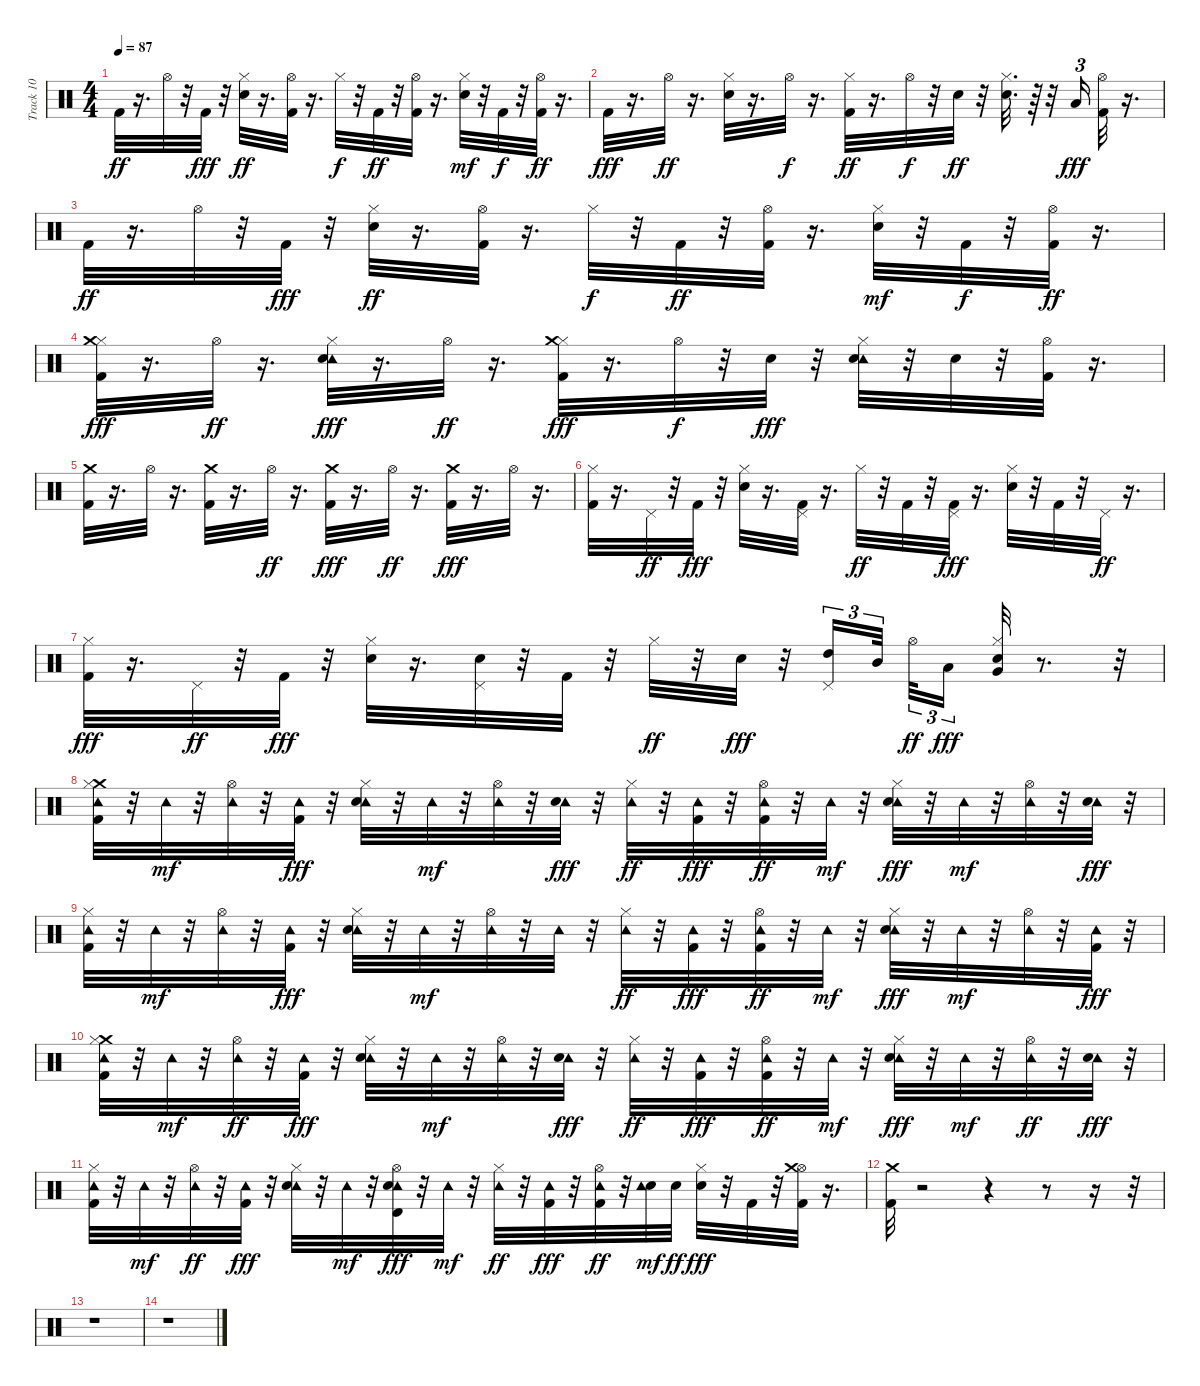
\track ("Track 10" "Track 10") {instrument percussion}
\staff {score}
\articulation defaults
\ts (4 4)
\tempo 87
\clef neutral
\ks c "Kick (hit) 2".32{dy ff}
r.16{d} "Hi-Hat (open)".32 r.32 "Kick (hit) 2".32{dy fff} r.32 ("Snare (hit) 2" "Hi-Hat (closed)").32{dy ff} r.16{d} ("Hi-Hat (open)" "Kick (hit) 2").32 r.16{d} "Hi-Hat (closed)".32{dy f} r.32 "Kick (hit) 2".32{dy ff} r.32 ("Hi-Hat (open)" "Kick (hit) 2").32 r.16{d} ("Hi-Hat (closed)" "Snare (hit) 2").32{dy mf} r.32 "Kick (hit) 2".32{dy f} r.32 ("Hi-Hat (open)" "Kick (hit) 2").32{dy ff} r.16{d} |
"Kick (hit) 2".32{dy fff} r.16{d} "Hi-Hat (open)".32{dy ff} r.16{d} ("Snare (hit) 2" "Hi-Hat (closed)").32 r.16{d} "Hi-Hat (open)".32{dy f} r.16{d} ("Kick (hit) 2" "Hi-Hat (closed)").32{dy ff} r.16{d} "Hi-Hat (open)".32{dy f} r.32 "Snare (hit) 2".32{dy ff} r.32 ("Hi-Hat (closed)" "Snare (hit) 2").32{d} r.64 r.32 "Low Tom (hit)".16{tu (3 2) dy fff} ("Hi-Hat (open)" "Kick (hit) 2").32 r.16{d} |
"Kick (hit) 2".32{dy ff} r.16{d} "Hi-Hat (open)".32 r.32 "Kick (hit) 2".32{dy fff} r.32 ("Snare (hit) 2" "Hi-Hat (closed)").32{dy ff} r.16{d} ("Hi-Hat (open)" "Kick (hit) 2").32 r.16{d} "Hi-Hat (closed)".32{dy f} r.32 "Kick (hit) 2".32{dy ff} r.32 ("Hi-Hat (open)" "Kick (hit) 2").32 r.16{d} ("Hi-Hat (closed)" "Snare (hit) 2").32{dy mf} r.32 "Kick (hit) 2".32{dy f} r.32 ("Hi-Hat (open)" "Kick (hit) 2").32{dy ff} r.16{d} |
("Hi-Hat (closed)" "Kick (hit) 2" "Crash medium (hit)").32{dy fff} r.16{d} "Hi-Hat (open)".32{dy ff} r.16{d} ("Hi-Hat (closed)" "Tambourine (hit)" "Snare (hit) 2").32{dy fff} r.16{d} "Hi-Hat (open)".32{dy ff} r.16{d} ("Hi-Hat (closed)" "Kick (hit) 2" "Crash medium (hit)").32{dy fff} r.16{d} "Hi-Hat (open)".32{dy f} r.32 "Snare (hit) 2".32{dy fff} r.32 ("Hi-Hat (closed)" "Tambourine (hit)" "Snare (hit) 2").32 r.32 "Snare (hit) 2".32 r.32 ("Hi-Hat (open)" "Kick (hit) 2").32 r.16{d} |
("Crash medium (hit)" "Kick (hit) 2").32 r.16{d} "Hi-Hat (open)".32 r.16{d} ("Kick (hit) 2" "Crash medium (hit)").32 r.16{d} "Hi-Hat (open)".32{dy ff} r.16{d} ("Kick (hit) 2" "Crash medium (hit)").32{dy fff} r.16{d} "Hi-Hat (open)".32{dy ff} r.16{d} ("Kick (hit) 2" "Crash medium (hit)").32{dy fff} r.16{d} "Hi-Hat (open)".32 r.16{d} |
("Hi-Hat (closed)" "Kick (hit) 2").32 r.16{d} "Pedal Hi-Hat (hit)".32{dy ff} r.32 "Kick (hit) 2".32{dy fff} r.32 ("Hi-Hat (closed)" "Snare (hit) 2").32 r.16{d} ("Pedal Hi-Hat (hit)" "Kick (hit) 2").32 r.16{d} "Hi-Hat (closed)".32{dy ff} r.32 "Kick (hit) 2".32 r.32 ("Pedal Hi-Hat (hit)" "Kick (hit) 2").32{dy fff} r.16{d} ("Hi-Hat (closed)" "Snare (hit) 2").32 r.32 "Kick (hit) 2".32 r.32 "Pedal Hi-Hat (hit)".32{dy ff} r.16{d} |
("Hi-Hat (closed)" "Kick (hit) 2").32{dy fff} r.16{d} "Pedal Hi-Hat (hit)".32{dy ff} r.32 "Kick (hit) 2".32{dy fff} r.32 ("Hi-Hat (closed)" "Snare (hit) 2").32 r.16{d} ("Pedal Hi-Hat (hit)" "Snare (hit) 2").32 r.32 "Kick (hit) 2".32 r.32 "Hi-Hat (closed)".32{dy ff} r.32 "Snare (hit) 2".32{dy fff} r.32 ("High Tom (hit)" "Pedal Hi-Hat (hit)").16{tu (3 2)} "Mid Tom (hit)".32{tu (3 2) beam splitsecondary} "Hi-Hat (open)".32{tu (3 2) dy ff} "Low Tom (hit)".16{tu (3 2) dy fff} ("Very Low Tom (hit)" "Hi-Hat (closed)" "Snare (hit) 2").32 r.8{d} r.32 |
("Crash medium (hit)" "Hi-Hat (closed)" "Tambourine (hit)" "Kick (hit) 2").32 r.32 "Tambourine (hit)".32{dy mf} r.32 ("Hi-Hat (open)" "Tambourine (hit)").32 r.32 ("Tambourine (hit)" "Kick (hit) 2").32{dy fff} r.32 ("Hi-Hat (closed)" "Tambourine (hit)" "Snare (hit) 2").32 r.32 "Tambourine (hit)".32{dy mf} r.32 ("Hi-Hat (open)" "Tambourine (hit)").32 r.32 ("Tambourine (hit)" "Snare (hit) 2").32{dy fff} r.32 ("Hi-Hat (closed)" "Tambourine (hit)").32{dy ff} r.32 ("Tambourine (hit)" "Kick (hit) 2").32{dy fff} r.32 ("Hi-Hat (open)" "Tambourine (hit)" "Kick (hit) 2").32{dy ff} r.32 "Tambourine (hit)".32{dy mf} r.32 ("Hi-Hat (closed)" "Tambourine (hit)" "Snare (hit) 2").32{dy fff} r.32 "Tambourine (hit)".32{dy mf} r.32 ("Hi-Hat (open)" "Tambourine (hit)").32 r.32 ("Tambourine (hit)" "Snare (hit) 2").32{dy fff} r.32 |
("Hi-Hat (closed)" "Tambourine (hit)" "Kick (hit) 2").32 r.32 "Tambourine (hit)".32{dy mf} r.32 ("Hi-Hat (open)" "Tambourine (hit)").32 r.32 ("Tambourine (hit)" "Kick (hit) 2").32{dy fff} r.32 ("Hi-Hat (closed)" "Tambourine (hit)" "Snare (hit) 2").32 r.32 "Tambourine (hit)".32{dy mf} r.32 ("Hi-Hat (open)" "Tambourine (hit)").32 r.32 "Tambourine (hit)".32 r.32 ("Hi-Hat (closed)" "Tambourine (hit)").32{dy ff} r.32 ("Tambourine (hit)" "Kick (hit) 2").32{dy fff} r.32 ("Hi-Hat (open)" "Tambourine (hit)" "Kick (hit) 2").32{dy ff} r.32 "Tambourine (hit)".32{dy mf} r.32 ("Hi-Hat (closed)" "Tambourine (hit)" "Snare (hit) 2").32{dy fff} r.32 "Tambourine (hit)".32{dy mf} r.32 ("Hi-Hat (open)" "Tambourine (hit)").32 r.32 ("Tambourine (hit)" "Kick (hit) 2").32{dy fff} r.32 |
("Tambourine (hit)" "Crash medium (hit)" "Hi-Hat (closed)" "Kick (hit) 2").32 r.32 "Tambourine (hit)".32{dy mf} r.32 ("Tambourine (hit)" "Hi-Hat (open)").32{dy ff} r.32 ("Tambourine (hit)" "Kick (hit) 2").32{dy fff} r.32 ("Tambourine (hit)" "Hi-Hat (closed)" "Snare (hit) 2").32 r.32 "Tambourine (hit)".32{dy mf} r.32 ("Tambourine (hit)" "Hi-Hat (open)").32 r.32 ("Tambourine (hit)" "Snare (hit) 2").32{dy fff} r.32 ("Tambourine (hit)" "Hi-Hat (closed)").32{dy ff} r.32 ("Tambourine (hit)" "Kick (hit) 2").32{dy fff} r.32 ("Tambourine (hit)" "Hi-Hat (open)" "Kick (hit) 2").32{dy ff} r.32 "Tambourine (hit)".32{dy mf} r.32 ("Tambourine (hit)" "Hi-Hat (closed)" "Snare (hit) 2").32{dy fff} r.32 "Tambourine (hit)".32{dy mf} r.32 ("Tambourine (hit)" "Hi-Hat (open)").32{dy ff} r.32 ("Tambourine (hit)" "Snare (hit) 2").32{dy fff} r.32 |
("Tambourine (hit)" "Hi-Hat (closed)" "Kick (hit) 2").32 r.32 "Tambourine (hit)".32{dy mf} r.32 ("Tambourine (hit)" "Hi-Hat (open)").32{dy ff} r.32 ("Tambourine (hit)" "Kick (hit) 2").32{dy fff} r.32 ("Tambourine (hit)" "Hi-Hat (closed)" "Snare (hit) 2").32 r.32 "Tambourine (hit)".32{dy mf} r.32 ("Tambourine (hit)" "Hi-Hat (open)" "Timbale high (hit)" "Snare (hit) 2").32{dy fff} r.32 "Tambourine (hit)".32{dy mf} r.32 ("Tambourine (hit)" "Hi-Hat (closed)").32{dy ff} r.32 ("Tambourine (hit)" "Kick (hit) 2").32{dy fff} r.32 ("Tambourine (hit)" "Hi-Hat (open)" "Kick (hit) 2").32{dy ff} r.32 ("Snare (hit) 2" "Tambourine (hit)").32{dy mf} "Snare (hit) 2".32{dy ff} ("Hi-Hat (closed)" "Snare (hit) 2").32{dy fff} r.32 "Kick (hit) 2".32 r.32 ("Hi-Hat (open)" "Kick (hit) 2" "Crash medium (hit)").32 r.16{d} |
("Crash medium (hit)" "Kick (hit) 2").32 r.2 r.4 r.8 r.16 r.32 |
r.1 |
r.1
